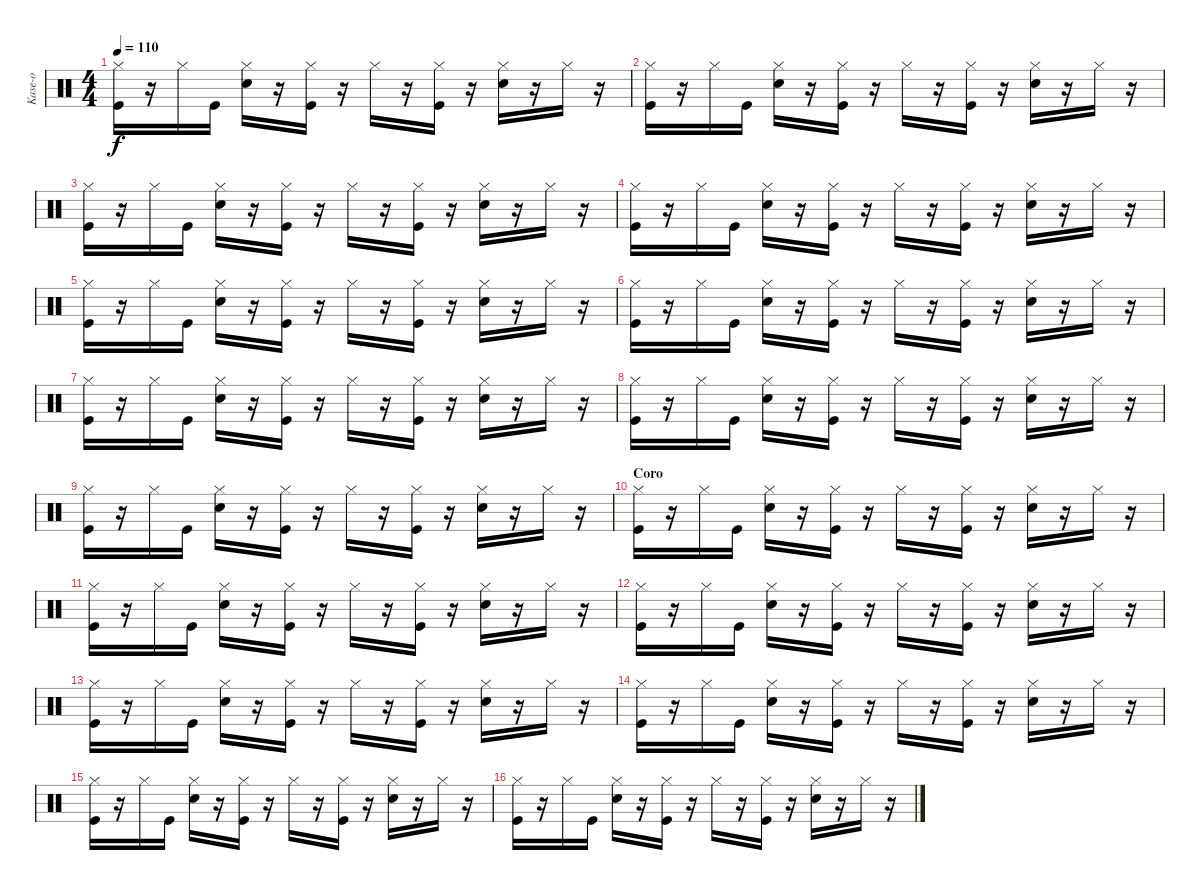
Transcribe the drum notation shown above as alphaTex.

\track ("Kase-o" "Kase-o") {instrument percussion}
\staff {score}
\articulation defaults
\ts (4 4)
\tempo 110
\clef neutral
\ks c
("Hi-Hat (closed)" "Kick (hit)").16{dy f} r.16 "Hi-Hat (closed)".16 "Kick (hit)".16 ("Hi-Hat (closed)" "Electric Snare (hit)").16 r.16 ("Hi-Hat (closed)" "Kick (hit)").16 r.16 "Hi-Hat (closed)".16 r.16 ("Hi-Hat (closed)" "Kick (hit)").16 r.16 ("Hi-Hat (closed)" "Electric Snare (hit)").16 r.16 "Hi-Hat (closed)".16 r.16 |
("Hi-Hat (closed)" "Kick (hit)").16 r.16 "Hi-Hat (closed)".16 "Kick (hit)".16 ("Hi-Hat (closed)" "Electric Snare (hit)").16 r.16 ("Hi-Hat (closed)" "Kick (hit)").16 r.16 "Hi-Hat (closed)".16 r.16 ("Hi-Hat (closed)" "Kick (hit)").16 r.16 ("Hi-Hat (closed)" "Electric Snare (hit)").16 r.16 "Hi-Hat (closed)".16 r.16 |
("Hi-Hat (closed)" "Kick (hit)").16 r.16 "Hi-Hat (closed)".16 "Kick (hit)".16 ("Hi-Hat (closed)" "Electric Snare (hit)").16 r.16 ("Hi-Hat (closed)" "Kick (hit)").16 r.16 "Hi-Hat (closed)".16 r.16 ("Hi-Hat (closed)" "Kick (hit)").16 r.16 ("Hi-Hat (closed)" "Electric Snare (hit)").16 r.16 "Hi-Hat (closed)".16 r.16 |
("Hi-Hat (closed)" "Kick (hit)").16 r.16 "Hi-Hat (closed)".16 "Kick (hit)".16 ("Hi-Hat (closed)" "Electric Snare (hit)").16 r.16 ("Hi-Hat (closed)" "Kick (hit)").16 r.16 "Hi-Hat (closed)".16 r.16 ("Hi-Hat (closed)" "Kick (hit)").16 r.16 ("Hi-Hat (closed)" "Electric Snare (hit)").16 r.16 "Hi-Hat (closed)".16 r.16 |
("Hi-Hat (closed)" "Kick (hit)").16 r.16 "Hi-Hat (closed)".16 "Kick (hit)".16 ("Hi-Hat (closed)" "Electric Snare (hit)").16 r.16 ("Hi-Hat (closed)" "Kick (hit)").16 r.16 "Hi-Hat (closed)".16 r.16 ("Hi-Hat (closed)" "Kick (hit)").16 r.16 ("Hi-Hat (closed)" "Electric Snare (hit)").16 r.16 "Hi-Hat (closed)".16 r.16 |
("Hi-Hat (closed)" "Kick (hit)").16 r.16 "Hi-Hat (closed)".16 "Kick (hit)".16 ("Hi-Hat (closed)" "Electric Snare (hit)").16 r.16 ("Hi-Hat (closed)" "Kick (hit)").16 r.16 "Hi-Hat (closed)".16 r.16 ("Hi-Hat (closed)" "Kick (hit)").16 r.16 ("Hi-Hat (closed)" "Electric Snare (hit)").16 r.16 "Hi-Hat (closed)".16 r.16 |
("Hi-Hat (closed)" "Kick (hit)").16 r.16 "Hi-Hat (closed)".16 "Kick (hit)".16 ("Hi-Hat (closed)" "Electric Snare (hit)").16 r.16 ("Hi-Hat (closed)" "Kick (hit)").16 r.16 "Hi-Hat (closed)".16 r.16 ("Hi-Hat (closed)" "Kick (hit)").16 r.16 ("Hi-Hat (closed)" "Electric Snare (hit)").16 r.16 "Hi-Hat (closed)".16 r.16 |
("Hi-Hat (closed)" "Kick (hit)").16 r.16 "Hi-Hat (closed)".16 "Kick (hit)".16 ("Hi-Hat (closed)" "Electric Snare (hit)").16 r.16 ("Hi-Hat (closed)" "Kick (hit)").16 r.16 "Hi-Hat (closed)".16 r.16 ("Hi-Hat (closed)" "Kick (hit)").16 r.16 ("Hi-Hat (closed)" "Electric Snare (hit)").16 r.16 "Hi-Hat (closed)".16 r.16 |
("Hi-Hat (closed)" "Kick (hit)").16 r.16 "Hi-Hat (closed)".16 "Kick (hit)".16 ("Hi-Hat (closed)" "Electric Snare (hit)").16 r.16 ("Hi-Hat (closed)" "Kick (hit)").16 r.16 "Hi-Hat (closed)".16 r.16 ("Hi-Hat (closed)" "Kick (hit)").16 r.16 ("Hi-Hat (closed)" "Electric Snare (hit)").16 r.16 "Hi-Hat (closed)".16 r.16 |
\section ("" "Coro")
("Hi-Hat (closed)" "Kick (hit)").16 r.16 "Hi-Hat (closed)".16 "Kick (hit)".16 ("Hi-Hat (closed)" "Electric Snare (hit)").16 r.16 ("Hi-Hat (closed)" "Kick (hit)").16 r.16 "Hi-Hat (closed)".16 r.16 ("Hi-Hat (closed)" "Kick (hit)").16 r.16 ("Hi-Hat (closed)" "Electric Snare (hit)").16 r.16 "Hi-Hat (closed)".16 r.16 |
("Hi-Hat (closed)" "Kick (hit)").16 r.16 "Hi-Hat (closed)".16 "Kick (hit)".16 ("Hi-Hat (closed)" "Electric Snare (hit)").16 r.16 ("Hi-Hat (closed)" "Kick (hit)").16 r.16 "Hi-Hat (closed)".16 r.16 ("Hi-Hat (closed)" "Kick (hit)").16 r.16 ("Hi-Hat (closed)" "Electric Snare (hit)").16 r.16 "Hi-Hat (closed)".16 r.16 |
("Hi-Hat (closed)" "Kick (hit)").16 r.16 "Hi-Hat (closed)".16 "Kick (hit)".16 ("Hi-Hat (closed)" "Electric Snare (hit)").16 r.16 ("Hi-Hat (closed)" "Kick (hit)").16 r.16 "Hi-Hat (closed)".16 r.16 ("Hi-Hat (closed)" "Kick (hit)").16 r.16 ("Hi-Hat (closed)" "Electric Snare (hit)").16 r.16 "Hi-Hat (closed)".16 r.16 |
("Hi-Hat (closed)" "Kick (hit)").16 r.16 "Hi-Hat (closed)".16 "Kick (hit)".16 ("Hi-Hat (closed)" "Electric Snare (hit)").16 r.16 ("Hi-Hat (closed)" "Kick (hit)").16 r.16 "Hi-Hat (closed)".16 r.16 ("Hi-Hat (closed)" "Kick (hit)").16 r.16 ("Hi-Hat (closed)" "Electric Snare (hit)").16 r.16 "Hi-Hat (closed)".16 r.16 |
("Hi-Hat (closed)" "Kick (hit)").16 r.16 "Hi-Hat (closed)".16 "Kick (hit)".16 ("Hi-Hat (closed)" "Electric Snare (hit)").16 r.16 ("Hi-Hat (closed)" "Kick (hit)").16 r.16 "Hi-Hat (closed)".16 r.16 ("Hi-Hat (closed)" "Kick (hit)").16 r.16 ("Hi-Hat (closed)" "Electric Snare (hit)").16 r.16 "Hi-Hat (closed)".16 r.16 |
("Hi-Hat (closed)" "Kick (hit)").16 r.16 "Hi-Hat (closed)".16 "Kick (hit)".16 ("Hi-Hat (closed)" "Electric Snare (hit)").16 r.16 ("Hi-Hat (closed)" "Kick (hit)").16 r.16 "Hi-Hat (closed)".16 r.16 ("Hi-Hat (closed)" "Kick (hit)").16 r.16 ("Hi-Hat (closed)" "Electric Snare (hit)").16 r.16 "Hi-Hat (closed)".16 r.16 |
("Hi-Hat (closed)" "Kick (hit)").16 r.16 "Hi-Hat (closed)".16 "Kick (hit)".16 ("Hi-Hat (closed)" "Electric Snare (hit)").16 r.16 ("Hi-Hat (closed)" "Kick (hit)").16 r.16 "Hi-Hat (closed)".16 r.16 ("Hi-Hat (closed)" "Kick (hit)").16 r.16 ("Hi-Hat (closed)" "Electric Snare (hit)").16 r.16 "Hi-Hat (closed)".16 r.16
